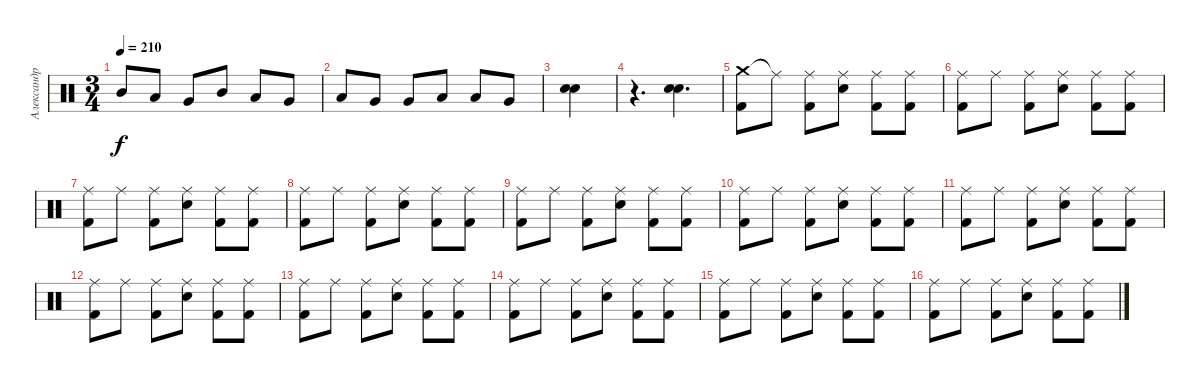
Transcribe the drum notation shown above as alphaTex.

\track ("Александр Манякин" "Александр ") {instrument percussion}
\staff {score}
\articulation defaults
\ts (3 4)
\tempo 210
\clef neutral
\ks c "Mid Tom (hit)".8{dy f} "Low Tom (hit)".8 "Very Low Tom (hit)".8 "Mid Tom (hit)".8 "Low Tom (hit)".8 "Very Low Tom (hit)".8
|
"Low Tom (hit)".8 "Very Low Tom (hit)".8 "Very Low Tom (hit)".8 "Low Tom (hit)".8 "Low Tom (hit)".8 "Very Low Tom (hit)".8 |
("Snare (hit) 2" "Snare (hit) 2").4{bd 240} |
r.4{d} ("Snare (hit) 2" "Snare (hit) 2").4{d bd 120} |
("Crash medium (hit)" "Kick (hit) 2").8 "Ride (middle)"{t}.8 ("Ride (middle)" "Kick (hit) 2").8 ("Ride (middle)" "Snare (hit) 2").8 ("Ride (middle)" "Kick (hit) 2").8 ("Ride (middle)" "Kick (hit) 2").8 |
("Ride (middle)" "Kick (hit) 2").8 "Ride (middle)".8 ("Ride (middle)" "Kick (hit) 2").8 ("Ride (middle)" "Snare (hit) 2").8 ("Ride (middle)" "Kick (hit) 2").8 ("Ride (middle)" "Kick (hit) 2").8 |
("Ride (middle)" "Kick (hit) 2").8 "Ride (middle)".8 ("Ride (middle)" "Kick (hit) 2").8 ("Ride (middle)" "Snare (hit) 2").8 ("Ride (middle)" "Kick (hit) 2").8 ("Ride (middle)" "Kick (hit) 2").8 |
("Ride (middle)" "Kick (hit) 2").8 "Ride (middle)".8 ("Ride (middle)" "Kick (hit) 2").8 ("Ride (middle)" "Snare (hit) 2").8 ("Ride (middle)" "Kick (hit) 2").8 ("Ride (middle)" "Kick (hit) 2").8 |
("Ride (middle)" "Kick (hit) 2").8 "Ride (middle)".8 ("Ride (middle)" "Kick (hit) 2").8 ("Ride (middle)" "Snare (hit) 2").8 ("Ride (middle)" "Kick (hit) 2").8 ("Ride (middle)" "Kick (hit) 2").8 |
("Ride (middle)" "Kick (hit) 2").8 "Ride (middle)".8 ("Ride (middle)" "Kick (hit) 2").8 ("Ride (middle)" "Snare (hit) 2").8 ("Ride (middle)" "Kick (hit) 2").8 ("Ride (middle)" "Kick (hit) 2").8 |
("Ride (middle)" "Kick (hit) 2").8 "Ride (middle)".8 ("Ride (middle)" "Kick (hit) 2").8 ("Ride (middle)" "Snare (hit) 2").8 ("Ride (middle)" "Kick (hit) 2").8 ("Ride (middle)" "Kick (hit) 2").8 |
("Ride (middle)" "Kick (hit) 2").8 "Ride (middle)".8 ("Ride (middle)" "Kick (hit) 2").8 ("Ride (middle)" "Snare (hit) 2").8 ("Ride (middle)" "Kick (hit) 2").8 ("Ride (middle)" "Kick (hit) 2").8 |
("Ride (middle)" "Kick (hit) 2").8 "Ride (middle)".8 ("Ride (middle)" "Kick (hit) 2").8 ("Ride (middle)" "Snare (hit) 2").8 ("Ride (middle)" "Kick (hit) 2").8 ("Ride (middle)" "Kick (hit) 2").8 |
("Ride (middle)" "Kick (hit) 2").8 "Ride (middle)".8 ("Ride (middle)" "Kick (hit) 2").8 ("Ride (middle)" "Snare (hit) 2").8 ("Ride (middle)" "Kick (hit) 2").8 ("Ride (middle)" "Kick (hit) 2").8 |
("Ride (middle)" "Kick (hit) 2").8 "Ride (middle)".8 ("Ride (middle)" "Kick (hit) 2").8 ("Ride (middle)" "Snare (hit) 2").8 ("Ride (middle)" "Kick (hit) 2").8 ("Ride (middle)" "Kick (hit) 2").8 |
("Ride (middle)" "Kick (hit) 2").8 "Ride (middle)".8 ("Ride (middle)" "Kick (hit) 2").8 ("Ride (middle)" "Snare (hit) 2").8 ("Ride (middle)" "Kick (hit) 2").8 ("Ride (middle)" "Kick (hit) 2").8
